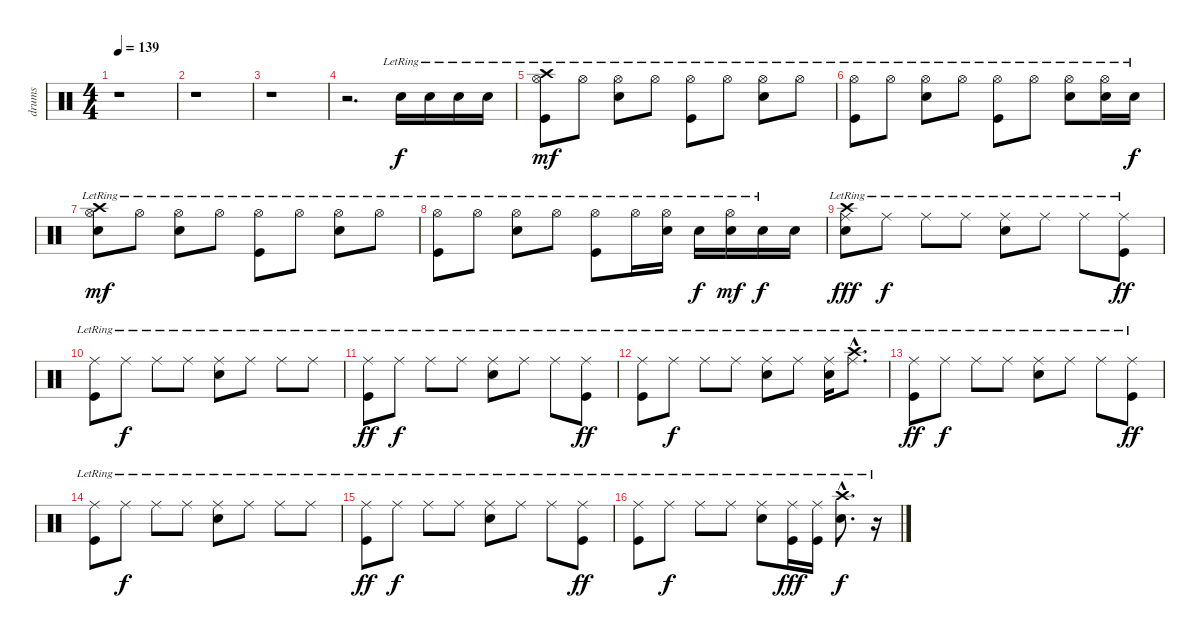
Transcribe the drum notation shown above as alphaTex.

\track ("drums" "drums") {instrument percussion}
\staff {score}
\articulation defaults
\ts (4 4)
\tempo 139
\clef neutral
\ks c
r.1{dy f} |
r.1 |
r.1 |
r.2{d} "Electric Snare (hit)"{lr}.16 "Electric Snare (hit)"{lr}.16 "Electric Snare (hit)"{lr}.16 "Electric Snare (hit)"{lr}.16 |
("Crash high (hit)"{lr} "Kick (hit)"{lr} "Hi-Hat (open)"{lr}).8{dy mf} "Hi-Hat (open)"{lr}.8 ("Electric Snare (hit)"{lr} "Hi-Hat (open)"{lr}).8 "Hi-Hat (open)"{lr}.8 ("Kick (hit)"{lr} "Hi-Hat (open)"{lr}).8 "Hi-Hat (open)"{lr}.8 ("Electric Snare (hit)"{lr} "Hi-Hat (open)"{lr}).8 "Hi-Hat (open)"{lr}.8 |
("Kick (hit)"{lr} "Hi-Hat (open)"{lr}).8 "Hi-Hat (open)"{lr}.8 ("Electric Snare (hit)"{lr} "Hi-Hat (open)"{lr}).8 "Hi-Hat (open)"{lr}.8 ("Kick (hit)"{lr} "Hi-Hat (open)"{lr}).8 "Hi-Hat (open)"{lr}.8 ("Electric Snare (hit)"{lr} "Hi-Hat (open)"{lr}).8 ("Electric Snare (hit)"{lr} "Hi-Hat (open)"{lr}).16 "Electric Snare (hit)"{lr}.16{dy f} |
("Crash high (hit)"{lr} "Electric Snare (hit)"{lr} "Hi-Hat (open)"{lr}).8{dy mf} "Hi-Hat (open)"{lr}.8 ("Electric Snare (hit)"{lr} "Hi-Hat (open)"{lr}).8 "Hi-Hat (open)"{lr}.8 ("Kick (hit)"{lr} "Hi-Hat (open)"{lr}).8 "Hi-Hat (open)"{lr}.8 ("Electric Snare (hit)"{lr} "Hi-Hat (open)"{lr}).8 "Hi-Hat (open)"{lr}.8 |
("Kick (hit)"{lr} "Hi-Hat (open)"{lr}).8 "Hi-Hat (open)"{lr}.8 ("Electric Snare (hit)"{lr} "Hi-Hat (open)"{lr}).8 "Hi-Hat (open)"{lr}.8 ("Kick (hit)"{lr} "Hi-Hat (open)"{lr}).8 "Hi-Hat (open)"{lr}.16 ("Electric Snare (hit)"{lr} "Hi-Hat (open)"{lr}).16 "Electric Snare (hit)"{lr}.16{dy f} ("Electric Snare (hit)"{lr} "Hi-Hat (open)"{lr}).16{dy mf} "Electric Snare (hit)"{lr}.16{dy f} "Electric Snare (hit)".16 |
("Ride (middle)"{lr} "Electric Snare (hit)"{lr} "Crash high (hit)").8{dy fff} "Ride (middle)"{lr}.8{dy f} "Ride (middle)"{lr}.8 "Ride (middle)"{lr}.8 ("Ride (middle)"{lr} "Electric Snare (hit)"{lr}).8 "Ride (middle)"{lr}.8 "Ride (middle)"{lr}.8 ("Ride (middle)"{lr} "Kick (hit)"{lr}).8{dy ff} |
("Ride (middle)"{lr} "Kick (hit)"{lr}).8 "Ride (middle)"{lr}.8{dy f} "Ride (middle)"{lr}.8 "Ride (middle)"{lr}.8 ("Ride (middle)"{lr} "Electric Snare (hit)"{lr}).8 "Ride (middle)"{lr}.8 "Ride (middle)"{lr}.8 "Ride (middle)"{lr}.8 |
("Ride (middle)"{lr} "Kick (hit)"{lr}).8{dy ff} "Ride (middle)"{lr}.8{dy f} "Ride (middle)"{lr}.8 "Ride (middle)"{lr}.8 ("Ride (middle)"{lr} "Electric Snare (hit)"{lr}).8 "Ride (middle)"{lr}.8 "Ride (middle)"{lr}.8 ("Ride (middle)"{lr} "Kick (hit)"{lr}).8{dy ff} |
("Ride (middle)"{lr} "Kick (hit)"{lr}).8 "Ride (middle)"{lr}.8{dy f} "Ride (middle)"{lr}.8 "Ride (middle)"{lr}.8 ("Ride (middle)"{lr} "Electric Snare (hit)"{lr}).8 "Ride (middle)"{lr}.8 ("Ride (middle)"{lr} "Electric Snare (hit)"{lr}).16 ("Crash high (hit)"{hac lr} "Ride (middle)"{hac lr}).8{d} |
("Ride (middle)"{lr} "Kick (hit)"{lr}).8{dy ff} "Ride (middle)"{lr}.8{dy f} "Ride (middle)"{lr}.8 "Ride (middle)"{lr}.8 ("Ride (middle)"{lr} "Electric Snare (hit)"{lr}).8 "Ride (middle)"{lr}.8 "Ride (middle)"{lr}.8 ("Ride (middle)"{lr} "Kick (hit)"{lr}).8{dy ff} |
("Ride (middle)"{lr} "Kick (hit)"{lr}).8 "Ride (middle)"{lr}.8{dy f} "Ride (middle)"{lr}.8 "Ride (middle)"{lr}.8 ("Ride (middle)"{lr} "Electric Snare (hit)"{lr}).8 "Ride (middle)"{lr}.8 "Ride (middle)"{lr}.8 "Ride (middle)"{lr}.8 |
("Ride (middle)"{lr} "Kick (hit)"{lr}).8{dy ff} "Ride (middle)"{lr}.8{dy f} "Ride (middle)"{lr}.8 "Ride (middle)"{lr}.8 ("Ride (middle)"{lr} "Electric Snare (hit)"{lr}).8 "Ride (middle)"{lr}.8 "Ride (middle)"{lr}.8 ("Ride (middle)"{lr} "Kick (hit)"{lr}).8{dy ff} |
("Ride (middle)"{lr} "Kick (hit)"{lr}).8 "Ride (middle)"{lr}.8{dy f} "Ride (middle)"{lr}.8 "Ride (middle)"{lr}.8 ("Ride (middle)"{lr} "Electric Snare (hit)"{lr}).8 ("Ride (middle)"{lr} "Kick (hit)").16{dy fff} ("Ride (middle)"{lr} "Kick (hit)"{lr}).16 ("Crash high (hit)"{hac lr} "Electric Snare (hit)"{hac}).8{d dy f} r.16
